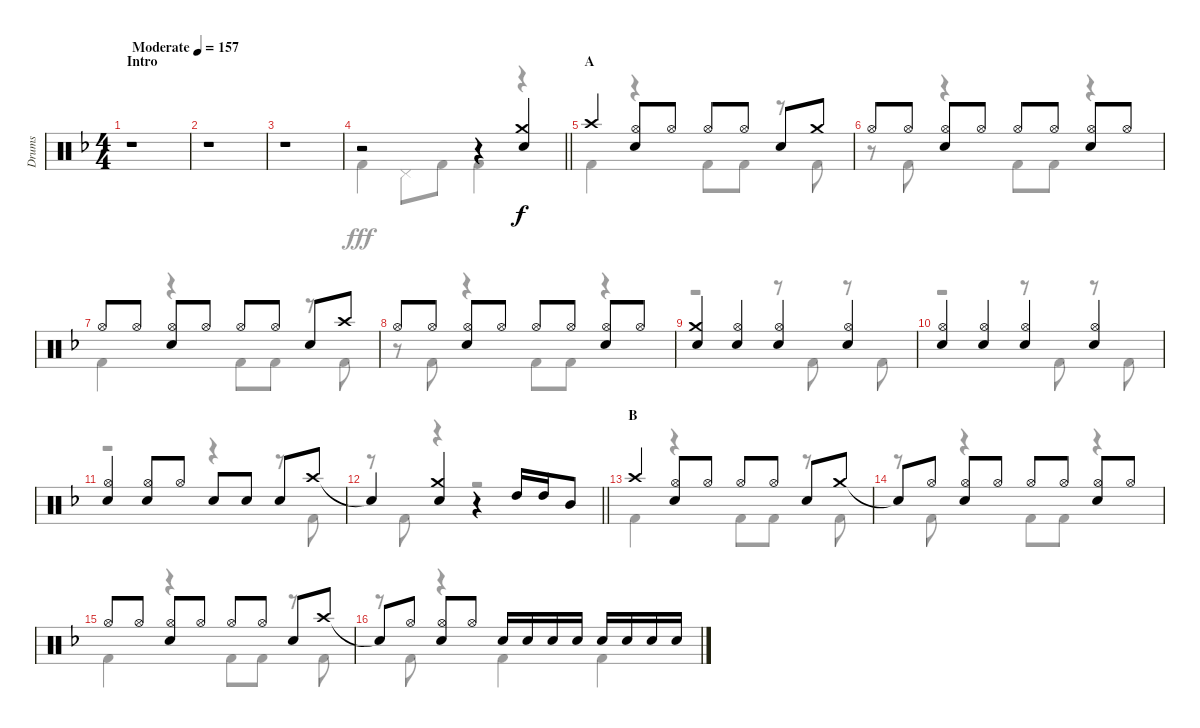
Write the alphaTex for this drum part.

\track ("Drums" "Drums") {instrument percussion}
\staff {score}
\articulation defaults
\voice
\ts (4 4)
\section ("" "Intro")
\tempo (157 "Moderate")
\clef neutral
\ks f
r.1{dy f} |
r.1 |
r.1 |
\barLineRight lightlight
r.2 r.4 ("Crash medium (hit)" "Snare (hit) 2").4 |
\section ("" "A")
"Crash high (hit)".4 ("Hi-Hat (open)" "Snare (hit) 2").8 "Hi-Hat (open)".8 "Hi-Hat (open)".8 "Hi-Hat (open)".8 "Snare (hit) 2".8 "Crash medium (hit)".8 |
"Hi-Hat (open)".8 "Hi-Hat (open)".8 ("Hi-Hat (open)" "Snare (hit) 2").8 "Hi-Hat (open)".8 "Hi-Hat (open)".8 "Hi-Hat (open)".8 ("Hi-Hat (open)" "Snare (hit) 2").8 "Hi-Hat (open)".8 |
"Hi-Hat (open)".8 "Hi-Hat (open)".8 ("Hi-Hat (open)" "Snare (hit) 2").8 "Hi-Hat (open)".8 "Hi-Hat (open)".8 "Hi-Hat (open)".8 "Snare (hit) 2".8 "Crash high (hit)".8 |
"Hi-Hat (open)".8 "Hi-Hat (open)".8 ("Hi-Hat (open)" "Snare (hit) 2").8 "Hi-Hat (open)".8 "Hi-Hat (open)".8 "Hi-Hat (open)".8 ("Hi-Hat (open)" "Snare (hit) 2").8 "Hi-Hat (open)".8 |
("Crash medium (hit)" "Snare (hit) 2").4 ("Hi-Hat (open)" "Snare (hit) 2").4 ("Hi-Hat (open)" "Snare (hit) 2").4 ("Hi-Hat (open)" "Snare (hit) 2").4 |
("Hi-Hat (open)" "Snare (hit) 2").4 ("Hi-Hat (open)" "Snare (hit) 2").4 ("Hi-Hat (open)" "Snare (hit) 2").4 ("Hi-Hat (open)" "Snare (hit) 2").4 |
("Hi-Hat (open)" "Snare (hit) 2").4 ("Hi-Hat (open)" "Snare (hit) 2").8 "Hi-Hat (open)".8 "Snare (hit) 2".8 "Snare (hit) 2".8 "Snare (hit) 2".8 "Crash high (hit)".8 |
\barLineRight lightlight "Snare (hit)"{t}.4
("Crash medium (hit)" "Snare (hit) 2").4 r.4 "High Tom (hit)".16 "High Tom (hit)".16 "Mid Tom (hit)".8 |
\section ("" "B")
"Crash high (hit)".4 ("Hi-Hat (open)" "Snare (hit) 2").8 "Hi-Hat (open)".8 "Hi-Hat (open)".8 "Hi-Hat (open)".8 "Snare (hit) 2".8 "Crash medium (hit)".8 |
"Snare (hit)"{t}.8 "Hi-Hat (open)".8 ("Hi-Hat (open)" "Snare (hit) 2").8 "Hi-Hat (open)".8 "Hi-Hat (open)".8 "Hi-Hat (open)".8 ("Hi-Hat (open)" "Snare (hit) 2").8 "Hi-Hat (open)".8 |
"Hi-Hat (open)".8 "Hi-Hat (open)".8 ("Hi-Hat (open)" "Snare (hit) 2").8 "Hi-Hat (open)".8 "Hi-Hat (open)".8 "Hi-Hat (open)".8 "Snare (hit) 2".8 "Crash high (hit)".8 |
"Snare (hit)"{t}.8 "Hi-Hat (open)".8 ("Hi-Hat (open)" "Snare (hit) 2").8 "Hi-Hat (open)".8 "Snare (hit) 2".16 "Snare (hit) 2".16 "Snare (hit) 2".16 "Snare (hit) 2".16 "Snare (hit) 2".16 "Snare (hit) 2".16 "Snare (hit) 2".16 "Snare (hit) 2".16
\voice
\clef neutral
\ottava regular
\simile none
\ks f
r.1{dy fff} |
r.1 |
r.1 |
\barLineRight lightlight "Kick (hit) 2".4 "Pedal Hi-Hat (hit)".8 "Kick (hit) 2".8 "Kick (hit) 2".4
r.4 |
"Kick (hit) 2".4 r.4 "Kick (hit) 2".8 "Kick (hit) 2".8 r.8 "Kick (hit) 2".8 |
r.8 "Kick (hit) 2".8 r.4 "Kick (hit) 2".8 "Kick (hit) 2".8 r.4 |
"Kick (hit) 2".4 r.4 "Kick (hit) 2".8 "Kick (hit) 2".8 r.8 "Kick (hit) 2".8 |
r.8 "Kick (hit) 2".8 r.4 "Kick (hit) 2".8 "Kick (hit) 2".8 r.4 |
r.2 r.8 "Kick (hit) 2".8 r.8 "Kick (hit) 2".8 |
r.2 r.8 "Kick (hit) 2".8 r.8 "Kick (hit) 2".8 |
r.2 r.4 r.8 "Kick (hit) 2".8 |
\barLineRight lightlight
r.8 "Kick (hit) 2".8 r.4 r.2 |
"Kick (hit) 2".4 r.4 "Kick (hit) 2".8 "Kick (hit) 2".8 r.8 "Kick (hit) 2".8 |
r.8 "Kick (hit) 2".8 r.4 "Kick (hit) 2".8 "Kick (hit) 2".8 r.4 |
"Kick (hit) 2".4 r.4 "Kick (hit) 2".8 "Kick (hit) 2".8 r.8 "Kick (hit) 2".8 |
r.8 "Kick (hit) 2".8 r.4 "Kick (hit) 2".4 "Kick (hit) 2".4
